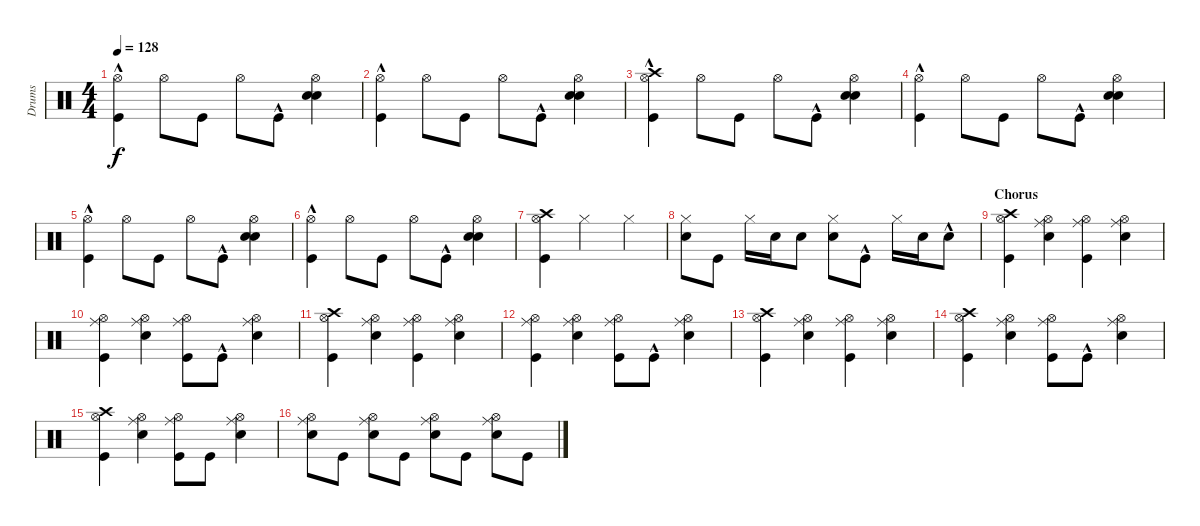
\track ("Drums" "Drums") {instrument percussion}
\staff {score}
\articulation defaults
\ts (4 4)
\tempo 128
\clef neutral
\ks c
("Kick (hit)"{hac} "Hi-Hat (open)").4{dy f} "Hi-Hat (open)".8 "Kick (hit)".8 "Hi-Hat (open)".8 "Kick (hit)"{hac}.8 ("Snare (hit) 2" "Hi-Hat (open)" "Snare (hit) 2").4 |
("Kick (hit)"{hac} "Hi-Hat (open)").4 "Hi-Hat (open)".8 "Kick (hit)".8 "Hi-Hat (open)".8 "Kick (hit)"{hac}.8 ("Snare (hit) 2" "Hi-Hat (open)" "Snare (hit) 2").4 |
("Kick (hit)"{hac} "Hi-Hat (open)" "Crash high (hit)").4 "Hi-Hat (open)".8 "Kick (hit)".8 "Hi-Hat (open)".8 "Kick (hit)"{hac}.8 ("Snare (hit) 2" "Hi-Hat (open)" "Snare (hit) 2").4 |
("Kick (hit)"{hac} "Hi-Hat (open)").4 "Hi-Hat (open)".8 "Kick (hit)".8 "Hi-Hat (open)".8 "Kick (hit)"{hac}.8 ("Snare (hit) 2" "Hi-Hat (open)" "Snare (hit) 2").4 |
("Kick (hit)"{hac} "Hi-Hat (open)").4 "Hi-Hat (open)".8 "Kick (hit)".8 "Hi-Hat (open)".8 "Kick (hit)"{hac}.8 ("Snare (hit) 2" "Hi-Hat (open)" "Snare (hit) 2").4 |
("Kick (hit)"{hac} "Hi-Hat (open)").4 "Hi-Hat (open)".8 "Kick (hit)".8 "Hi-Hat (open)".8 "Kick (hit)"{hac}.8 ("Snare (hit) 2" "Hi-Hat (open)" "Snare (hit) 2").4 |
("Kick (hit)" "Hi-Hat (open)" "Crash high (hit)").4 "Hi-Hat (closed)".2 "Hi-Hat (closed)".4 |
("Snare (hit) 2" "Hi-Hat (closed)").8 "Kick (hit)".8 "Hi-Hat (closed)".16 "Snare (hit) 2".16 "Snare (hit) 2".8 ("Snare (hit) 2" "Hi-Hat (closed)").8 "Kick (hit)"{hac}.8 "Hi-Hat (closed)".16 "Snare (hit) 2".16 "Snare (hit) 2"{hac}.8 |
\section ("" "Chorus")
("Kick (hit)" "Hi-Hat (open)" "Crash high (hit)").4 ("Snare (hit) 2" "Hi-Hat (open)" "Ride (middle)").4 ("Kick (hit)" "Hi-Hat (open)" "Ride (middle)").4 ("Snare (hit) 2" "Hi-Hat (open)" "Ride (middle)").4 |
("Kick (hit)" "Hi-Hat (open)" "Ride (middle)").4 ("Snare (hit) 2" "Hi-Hat (open)" "Ride (middle)").4 ("Kick (hit)" "Hi-Hat (open)" "Ride (middle)").8 "Kick (hit)"{hac}.8 ("Snare (hit) 2" "Hi-Hat (open)" "Ride (middle)").4 |
("Kick (hit)" "Hi-Hat (open)" "Crash high (hit)").4 ("Snare (hit) 2" "Hi-Hat (open)" "Ride (middle)").4 ("Kick (hit)" "Hi-Hat (open)" "Ride (middle)").4 ("Snare (hit) 2" "Hi-Hat (open)" "Ride (middle)").4 |
("Kick (hit)" "Hi-Hat (open)" "Ride (middle)").4 ("Snare (hit) 2" "Hi-Hat (open)" "Ride (middle)").4 ("Kick (hit)" "Hi-Hat (open)" "Ride (middle)").8 "Kick (hit)"{hac}.8 ("Snare (hit) 2" "Hi-Hat (open)" "Ride (middle)").4 |
("Kick (hit)" "Hi-Hat (open)" "Crash high (hit)").4 ("Snare (hit) 2" "Hi-Hat (open)" "Ride (middle)").4 ("Kick (hit)" "Hi-Hat (open)" "Ride (middle)").4 ("Snare (hit) 2" "Hi-Hat (open)" "Ride (middle)").4 |
("Kick (hit)" "Hi-Hat (open)" "Crash high (hit)").4 ("Snare (hit) 2" "Hi-Hat (open)" "Ride (middle)").4 ("Kick (hit)" "Hi-Hat (open)" "Ride (middle)").8 "Kick (hit)"{hac}.8 ("Snare (hit) 2" "Hi-Hat (open)" "Ride (middle)").4 |
("Kick (hit)" "Hi-Hat (open)" "Crash high (hit)").4 ("Snare (hit) 2" "Hi-Hat (open)" "Ride (middle)").4 ("Kick (hit)" "Hi-Hat (open)" "Ride (middle)").8 "Kick (hit)".8 ("Snare (hit) 2" "Hi-Hat (open)" "Ride (middle)").4 |
("Snare (hit) 2" "Hi-Hat (open)" "Ride (middle)").8 "Kick (hit)".8 ("Snare (hit) 2" "Hi-Hat (open)" "Ride (middle)").8 "Kick (hit)".8 ("Snare (hit) 2" "Hi-Hat (open)" "Ride (middle)").8 "Kick (hit)".8 ("Snare (hit) 2" "Hi-Hat (open)" "Ride (middle)").8 "Kick (hit)".8
